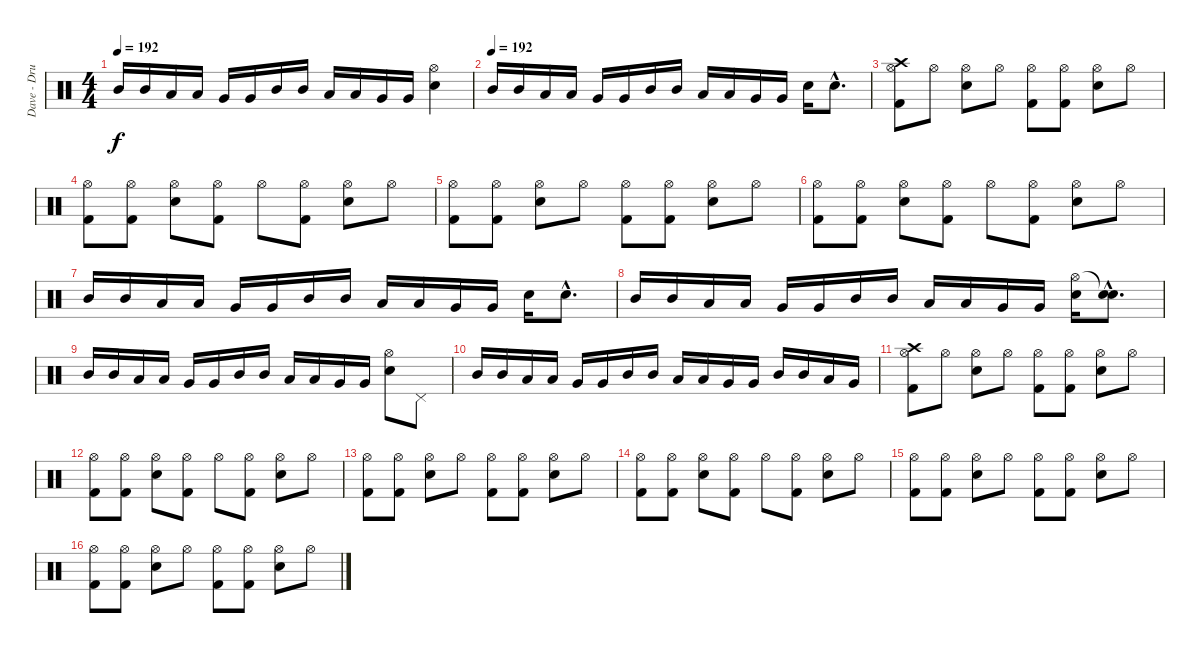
\track ("Dave - Drums" "Dave - Dru") {instrument percussion}
\staff {score}
\articulation defaults
\ts (4 4)
\tempo 192
\clef neutral
\ks c "Mid Tom (hit)".16{dy f} "Mid Tom (hit)".16 "Low Tom (hit)".16 "Low Tom (hit)".16 "Very Low Tom (hit)".16 "Very Low Tom (hit)".16 "Mid Tom (hit)".16 "Mid Tom (hit)".16 "Low Tom (hit)".16 "Low Tom (hit)".16 "Very Low Tom (hit)".16 "Very Low Tom (hit)".16
("Hi-Hat (open)" "Electric Snare (hit)").4 |
\tempo (192)
"Mid Tom (hit)".16 "Mid Tom (hit)".16 "Low Tom (hit)".16 "Low Tom (hit)".16 "Very Low Tom (hit)".16 "Very Low Tom (hit)".16 "Mid Tom (hit)".16 "Mid Tom (hit)".16 "Low Tom (hit)".16 "Low Tom (hit)".16 "Very Low Tom (hit)".16 "Very Low Tom (hit)".16 "Electric Snare (hit)".16 "Electric Snare (hit)"{hac}.8{d} |
("Crash high (hit)" "Hi-Hat (open)" "Kick (hit) 2").8 "Hi-Hat (open)".8 ("Hi-Hat (open)" "Electric Snare (hit)").8 "Hi-Hat (open)".8 ("Hi-Hat (open)" "Kick (hit) 2").8 ("Hi-Hat (open)" "Kick (hit) 2").8 ("Hi-Hat (open)" "Electric Snare (hit)").8 "Hi-Hat (open)".8 |
("Hi-Hat (open)" "Kick (hit) 2").8 ("Hi-Hat (open)" "Kick (hit) 2").8 ("Hi-Hat (open)" "Electric Snare (hit)").8 ("Hi-Hat (open)" "Kick (hit) 2").8 "Hi-Hat (open)".8 ("Hi-Hat (open)" "Kick (hit) 2").8 ("Hi-Hat (open)" "Electric Snare (hit)").8 "Hi-Hat (open)".8 |
("Hi-Hat (open)" "Kick (hit) 2").8 ("Hi-Hat (open)" "Kick (hit) 2").8 ("Hi-Hat (open)" "Electric Snare (hit)").8 "Hi-Hat (open)".8 ("Hi-Hat (open)" "Kick (hit) 2").8 ("Hi-Hat (open)" "Kick (hit) 2").8 ("Hi-Hat (open)" "Electric Snare (hit)").8 "Hi-Hat (open)".8 |
("Hi-Hat (open)" "Kick (hit) 2").8 ("Hi-Hat (open)" "Kick (hit) 2").8 ("Hi-Hat (open)" "Electric Snare (hit)").8 ("Hi-Hat (open)" "Kick (hit) 2").8 "Hi-Hat (open)".8 ("Hi-Hat (open)" "Kick (hit) 2").8 ("Hi-Hat (open)" "Electric Snare (hit)").8 "Hi-Hat (open)".8 |
"Mid Tom (hit)".16 "Mid Tom (hit)".16 "Low Tom (hit)".16 "Low Tom (hit)".16 "Very Low Tom (hit)".16 "Very Low Tom (hit)".16 "Mid Tom (hit)".16 "Mid Tom (hit)".16 "Low Tom (hit)".16 "Low Tom (hit)".16 "Very Low Tom (hit)".16 "Very Low Tom (hit)".16 "Electric Snare (hit)".16 "Electric Snare (hit)"{hac}.8{d} |
"Mid Tom (hit)".16 "Mid Tom (hit)".16 "Low Tom (hit)".16 "Low Tom (hit)".16 "Very Low Tom (hit)".16 "Very Low Tom (hit)".16 "Mid Tom (hit)".16 "Mid Tom (hit)".16 "Low Tom (hit)".16 "Low Tom (hit)".16 "Very Low Tom (hit)".16 "Very Low Tom (hit)".16 ("Hi-Hat (open)" "Electric Snare (hit)").16 ("Snare (hit)"{hac t} "Electric Snare (hit)"{hac}).8{d} |
"Mid Tom (hit)".16 "Mid Tom (hit)".16 "Low Tom (hit)".16 "Low Tom (hit)".16 "Very Low Tom (hit)".16 "Very Low Tom (hit)".16 "Mid Tom (hit)".16 "Mid Tom (hit)".16 "Low Tom (hit)".16 "Low Tom (hit)".16 "Very Low Tom (hit)".16 "Very Low Tom (hit)".16 ("Hi-Hat (open)" "Electric Snare (hit)").8 "Pedal Hi-Hat (hit)".8 |
"Mid Tom (hit)".16 "Mid Tom (hit)".16 "Low Tom (hit)".16 "Low Tom (hit)".16 "Very Low Tom (hit)".16 "Very Low Tom (hit)".16 "Mid Tom (hit)".16 "Mid Tom (hit)".16 "Low Tom (hit)".16 "Low Tom (hit)".16 "Very Low Tom (hit)".16 "Very Low Tom (hit)".16 "Mid Tom (hit)".16 "Mid Tom (hit)".16 "Low Tom (hit)".16 "Very Low Tom (hit)".16 |
("Crash high (hit)" "Hi-Hat (open)" "Kick (hit) 2").8 "Hi-Hat (open)".8 ("Hi-Hat (open)" "Electric Snare (hit)").8 "Hi-Hat (open)".8 ("Hi-Hat (open)" "Kick (hit) 2").8 ("Hi-Hat (open)" "Kick (hit) 2").8 ("Hi-Hat (open)" "Electric Snare (hit)").8 "Hi-Hat (open)".8 |
("Hi-Hat (open)" "Kick (hit) 2").8 ("Hi-Hat (open)" "Kick (hit) 2").8 ("Hi-Hat (open)" "Electric Snare (hit)").8 ("Hi-Hat (open)" "Kick (hit) 2").8 "Hi-Hat (open)".8 ("Hi-Hat (open)" "Kick (hit) 2").8 ("Hi-Hat (open)" "Electric Snare (hit)").8 "Hi-Hat (open)".8 |
("Hi-Hat (open)" "Kick (hit) 2").8 ("Hi-Hat (open)" "Kick (hit) 2").8 ("Hi-Hat (open)" "Electric Snare (hit)").8 "Hi-Hat (open)".8 ("Hi-Hat (open)" "Kick (hit) 2").8 ("Hi-Hat (open)" "Kick (hit) 2").8 ("Hi-Hat (open)" "Electric Snare (hit)").8 "Hi-Hat (open)".8 |
("Hi-Hat (open)" "Kick (hit) 2").8 ("Hi-Hat (open)" "Kick (hit) 2").8 ("Hi-Hat (open)" "Electric Snare (hit)").8 ("Hi-Hat (open)" "Kick (hit) 2").8 "Hi-Hat (open)".8 ("Hi-Hat (open)" "Kick (hit) 2").8 ("Hi-Hat (open)" "Electric Snare (hit)").8 "Hi-Hat (open)".8 |
("Hi-Hat (open)" "Kick (hit) 2").8 ("Hi-Hat (open)" "Kick (hit) 2").8 ("Hi-Hat (open)" "Electric Snare (hit)").8 "Hi-Hat (open)".8 ("Hi-Hat (open)" "Kick (hit) 2").8 ("Hi-Hat (open)" "Kick (hit) 2").8 ("Hi-Hat (open)" "Electric Snare (hit)").8 "Hi-Hat (open)".8 |
("Hi-Hat (open)" "Kick (hit) 2").8 ("Hi-Hat (open)" "Kick (hit) 2").8 ("Hi-Hat (open)" "Electric Snare (hit)").8 "Hi-Hat (open)".8 ("Hi-Hat (open)" "Kick (hit) 2").8 ("Hi-Hat (open)" "Kick (hit) 2").8 ("Hi-Hat (open)" "Electric Snare (hit)").8 "Hi-Hat (open)".8
